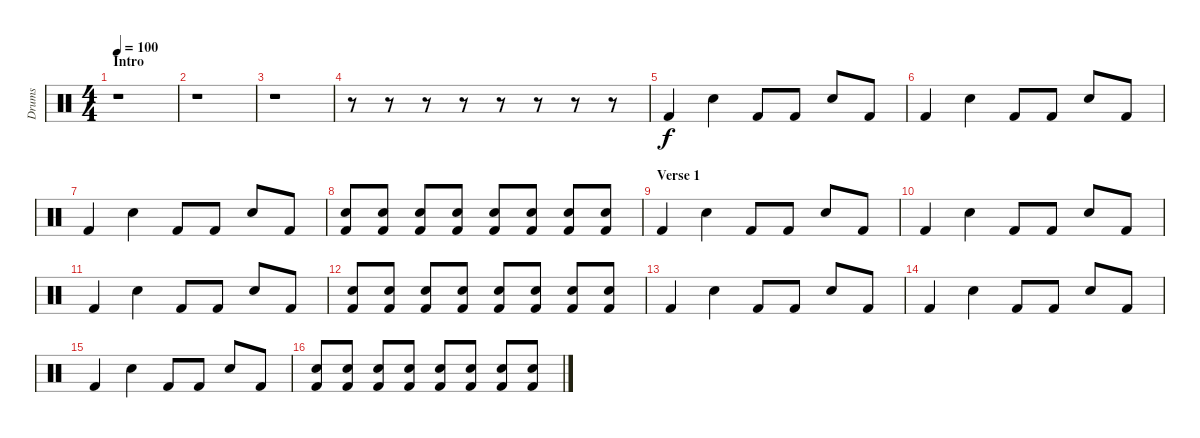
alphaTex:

\track ("Drums" "Drums") {instrument percussion}
\staff {score}
\articulation defaults
\ts (4 4)
\section ("" "Intro")
\tempo 100
\clef neutral
\ks c
r.1{dy f} |
r.1 |
r.1 |
r.8 r.8 r.8 r.8 r.8 r.8 r.8 r.8 |
"Kick (hit) 2".4 "Electric Snare (hit)".4 "Kick (hit) 2".8 "Kick (hit) 2".8 "Electric Snare (hit)".8 "Kick (hit) 2".8 |
"Kick (hit) 2".4 "Electric Snare (hit)".4 "Kick (hit) 2".8 "Kick (hit) 2".8 "Electric Snare (hit)".8 "Kick (hit) 2".8 |
"Kick (hit) 2".4 "Electric Snare (hit)".4 "Kick (hit) 2".8 "Kick (hit) 2".8 "Electric Snare (hit)".8 "Kick (hit) 2".8 |
("Electric Snare (hit)" "Kick (hit) 2").8 ("Electric Snare (hit)" "Kick (hit) 2").8 ("Electric Snare (hit)" "Kick (hit) 2").8 ("Electric Snare (hit)" "Kick (hit) 2").8 ("Electric Snare (hit)" "Kick (hit) 2").8 ("Electric Snare (hit)" "Kick (hit) 2").8 ("Electric Snare (hit)" "Kick (hit) 2").8 ("Electric Snare (hit)" "Kick (hit) 2").8 |
\section ("" "Verse 1")
"Kick (hit) 2".4 "Electric Snare (hit)".4 "Kick (hit) 2".8 "Kick (hit) 2".8 "Electric Snare (hit)".8 "Kick (hit) 2".8 |
"Kick (hit) 2".4 "Electric Snare (hit)".4 "Kick (hit) 2".8 "Kick (hit) 2".8 "Electric Snare (hit)".8 "Kick (hit) 2".8 |
"Kick (hit) 2".4 "Electric Snare (hit)".4 "Kick (hit) 2".8 "Kick (hit) 2".8 "Electric Snare (hit)".8 "Kick (hit) 2".8 |
("Electric Snare (hit)" "Kick (hit) 2").8 ("Electric Snare (hit)" "Kick (hit) 2").8 ("Electric Snare (hit)" "Kick (hit) 2").8 ("Electric Snare (hit)" "Kick (hit) 2").8 ("Electric Snare (hit)" "Kick (hit) 2").8 ("Electric Snare (hit)" "Kick (hit) 2").8 ("Electric Snare (hit)" "Kick (hit) 2").8 ("Electric Snare (hit)" "Kick (hit) 2").8 |
"Kick (hit) 2".4 "Electric Snare (hit)".4 "Kick (hit) 2".8 "Kick (hit) 2".8 "Electric Snare (hit)".8 "Kick (hit) 2".8 |
"Kick (hit) 2".4 "Electric Snare (hit)".4 "Kick (hit) 2".8 "Kick (hit) 2".8 "Electric Snare (hit)".8 "Kick (hit) 2".8 |
"Kick (hit) 2".4 "Electric Snare (hit)".4 "Kick (hit) 2".8 "Kick (hit) 2".8 "Electric Snare (hit)".8 "Kick (hit) 2".8 |
("Electric Snare (hit)" "Kick (hit) 2").8 ("Electric Snare (hit)" "Kick (hit) 2").8 ("Electric Snare (hit)" "Kick (hit) 2").8 ("Electric Snare (hit)" "Kick (hit) 2").8 ("Electric Snare (hit)" "Kick (hit) 2").8 ("Electric Snare (hit)" "Kick (hit) 2").8 ("Electric Snare (hit)" "Kick (hit) 2").8 ("Electric Snare (hit)" "Kick (hit) 2").8
